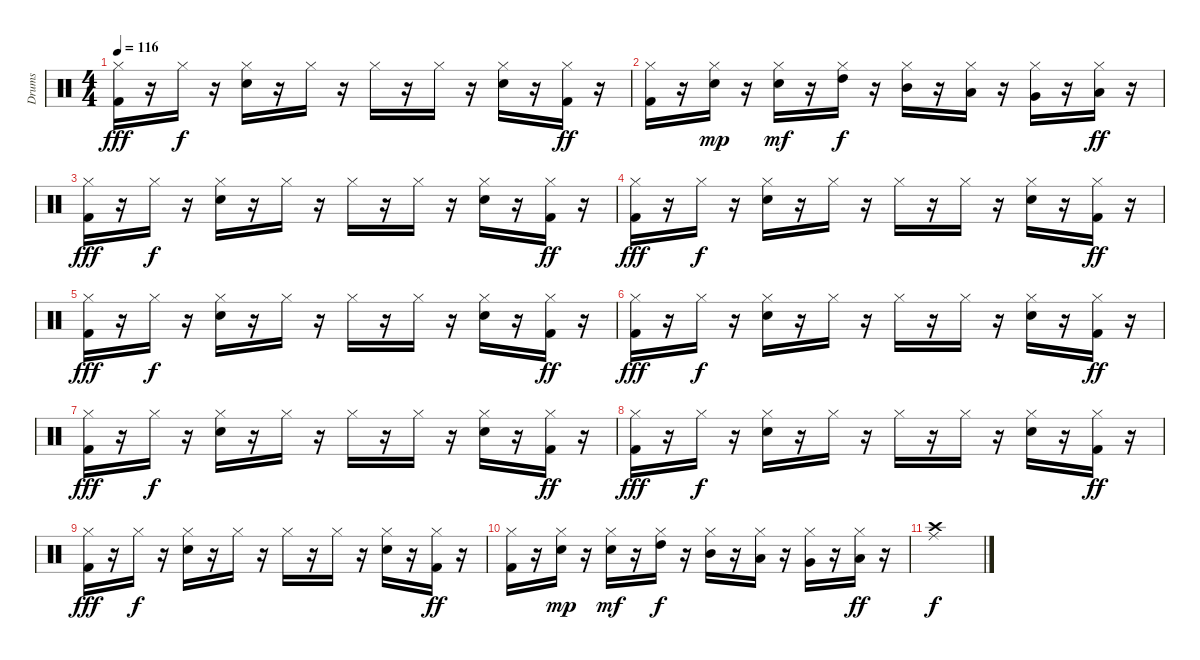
\track ("Drums" "Drums") {instrument percussion}
\staff {score}
\articulation defaults
\ts (4 4)
\tempo 116
\clef neutral
\ks c
("Hi-Hat (closed)" "Kick (hit) 2").16{dy fff} r.16 "Hi-Hat (closed)".16{dy f} r.16 ("Hi-Hat (closed)" "Electric Snare (hit)").16 r.16 "Hi-Hat (closed)".16 r.16 "Hi-Hat (closed)".16 r.16 "Hi-Hat (closed)".16 r.16 ("Hi-Hat (closed)" "Electric Snare (hit)").16 r.16 ("Hi-Hat (closed)" "Kick (hit) 2").16{dy ff} r.16 |
("Hi-Hat (closed)" "Kick (hit) 2").16 r.16 ("Hi-Hat (closed)" "Electric Snare (hit)").16{dy mp} r.16 ("Hi-Hat (closed)" "Snare (hit) 2").16{dy mf} r.16 ("Hi-Hat (closed)" "High Tom (hit)").16{dy f} r.16 ("Hi-Hat (closed)" "Mid Tom (hit)").16 r.16 ("Hi-Hat (closed)" "Low Tom (hit)").16 r.16 ("Hi-Hat (closed)" "Very Low Tom (hit)").16 r.16 ("Hi-Hat (closed)" "Low Floor Tom (hit)").16{dy ff} r.16 |
("Hi-Hat (closed)" "Kick (hit) 2").16{dy fff} r.16 "Hi-Hat (closed)".16{dy f} r.16 ("Hi-Hat (closed)" "Electric Snare (hit)").16 r.16 "Hi-Hat (closed)".16 r.16 "Hi-Hat (closed)".16 r.16 "Hi-Hat (closed)".16 r.16 ("Hi-Hat (closed)" "Electric Snare (hit)").16 r.16 ("Hi-Hat (closed)" "Kick (hit) 2").16{dy ff} r.16 |
("Hi-Hat (closed)" "Kick (hit) 2").16{dy fff} r.16 "Hi-Hat (closed)".16{dy f} r.16 ("Hi-Hat (closed)" "Electric Snare (hit)").16 r.16 "Hi-Hat (closed)".16 r.16 "Hi-Hat (closed)".16 r.16 "Hi-Hat (closed)".16 r.16 ("Hi-Hat (closed)" "Electric Snare (hit)").16 r.16 ("Hi-Hat (closed)" "Kick (hit) 2").16{dy ff} r.16 |
("Hi-Hat (closed)" "Kick (hit) 2").16{dy fff} r.16 "Hi-Hat (closed)".16{dy f} r.16 ("Hi-Hat (closed)" "Electric Snare (hit)").16 r.16 "Hi-Hat (closed)".16 r.16 "Hi-Hat (closed)".16 r.16 "Hi-Hat (closed)".16 r.16 ("Hi-Hat (closed)" "Electric Snare (hit)").16 r.16 ("Hi-Hat (closed)" "Kick (hit) 2").16{dy ff} r.16 |
("Hi-Hat (closed)" "Kick (hit) 2").16{dy fff} r.16 "Hi-Hat (closed)".16{dy f} r.16 ("Hi-Hat (closed)" "Electric Snare (hit)").16 r.16 "Hi-Hat (closed)".16 r.16 "Hi-Hat (closed)".16 r.16 "Hi-Hat (closed)".16 r.16 ("Hi-Hat (closed)" "Electric Snare (hit)").16 r.16 ("Hi-Hat (closed)" "Kick (hit) 2").16{dy ff} r.16 |
("Hi-Hat (closed)" "Kick (hit) 2").16{dy fff} r.16 "Hi-Hat (closed)".16{dy f} r.16 ("Hi-Hat (closed)" "Electric Snare (hit)").16 r.16 "Hi-Hat (closed)".16 r.16 "Hi-Hat (closed)".16 r.16 "Hi-Hat (closed)".16 r.16 ("Hi-Hat (closed)" "Electric Snare (hit)").16 r.16 ("Hi-Hat (closed)" "Kick (hit) 2").16{dy ff} r.16 |
("Hi-Hat (closed)" "Kick (hit) 2").16{dy fff} r.16 "Hi-Hat (closed)".16{dy f} r.16 ("Hi-Hat (closed)" "Electric Snare (hit)").16 r.16 "Hi-Hat (closed)".16 r.16 "Hi-Hat (closed)".16 r.16 "Hi-Hat (closed)".16 r.16 ("Hi-Hat (closed)" "Electric Snare (hit)").16 r.16 ("Hi-Hat (closed)" "Kick (hit) 2").16{dy ff} r.16 |
("Hi-Hat (closed)" "Kick (hit) 2").16{dy fff} r.16 "Hi-Hat (closed)".16{dy f} r.16 ("Hi-Hat (closed)" "Electric Snare (hit)").16 r.16 "Hi-Hat (closed)".16 r.16 "Hi-Hat (closed)".16 r.16 "Hi-Hat (closed)".16 r.16 ("Hi-Hat (closed)" "Electric Snare (hit)").16 r.16 ("Hi-Hat (closed)" "Kick (hit) 2").16{dy ff} r.16 |
("Hi-Hat (closed)" "Kick (hit) 2").16 r.16 ("Hi-Hat (closed)" "Electric Snare (hit)").16{dy mp} r.16 ("Hi-Hat (closed)" "Snare (hit) 2").16{dy mf} r.16 ("Hi-Hat (closed)" "High Tom (hit)").16{dy f} r.16 ("Hi-Hat (closed)" "Mid Tom (hit)").16 r.16 ("Hi-Hat (closed)" "Low Tom (hit)").16 r.16 ("Hi-Hat (closed)" "Very Low Tom (hit)").16 r.16 ("Hi-Hat (closed)" "Low Floor Tom (hit)").16{dy ff} r.16 |
("Ride (middle)" "Crash high (hit)").1{dy f}
